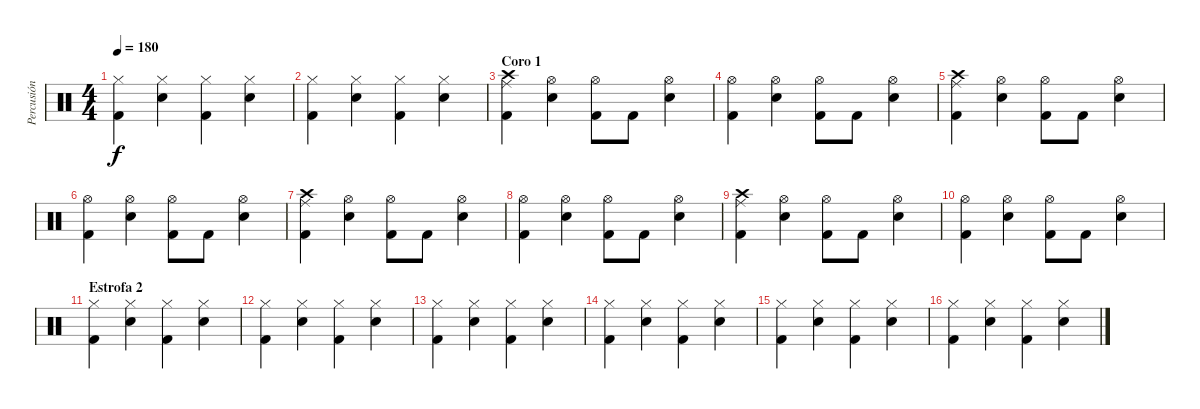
\track ("Percusión" "Percusión") {instrument percussion}
\staff {score}
\articulation defaults
\ts (4 4)
\tempo 180
\clef neutral
\ks c
("Hi-Hat (closed)" "Kick (hit) 2").4{dy f} ("Hi-Hat (closed)" "Electric Snare (hit)").4 ("Hi-Hat (closed)" "Kick (hit) 2").4 ("Hi-Hat (closed)" "Electric Snare (hit)").4 |
("Hi-Hat (closed)" "Kick (hit) 2").4 ("Hi-Hat (closed)" "Electric Snare (hit)").4 ("Hi-Hat (closed)" "Kick (hit) 2").4 ("Hi-Hat (closed)" "Electric Snare (hit)").4 |
\section ("" "Coro 1")
("Ride (middle)" "Crash high (hit)" "Kick (hit) 2").4 ("Hi-Hat (open)" "Electric Snare (hit)").4 ("Hi-Hat (open)" "Kick (hit) 2").8 "Kick (hit) 2".8 ("Hi-Hat (open)" "Electric Snare (hit)").4 |
("Hi-Hat (open)" "Kick (hit) 2").4 ("Hi-Hat (open)" "Electric Snare (hit)").4 ("Hi-Hat (open)" "Kick (hit) 2").8 "Kick (hit) 2".8 ("Hi-Hat (open)" "Electric Snare (hit)").4 |
("Ride (middle)" "Crash high (hit)" "Kick (hit) 2").4 ("Hi-Hat (open)" "Electric Snare (hit)").4 ("Hi-Hat (open)" "Kick (hit) 2").8 "Kick (hit) 2".8 ("Hi-Hat (open)" "Electric Snare (hit)").4 |
("Hi-Hat (open)" "Kick (hit) 2").4 ("Hi-Hat (open)" "Electric Snare (hit)").4 ("Hi-Hat (open)" "Kick (hit) 2").8 "Kick (hit) 2".8 ("Hi-Hat (open)" "Electric Snare (hit)").4 |
("Ride (middle)" "Crash high (hit)" "Kick (hit) 2").4 ("Hi-Hat (open)" "Electric Snare (hit)").4 ("Hi-Hat (open)" "Kick (hit) 2").8 "Kick (hit) 2".8 ("Hi-Hat (open)" "Electric Snare (hit)").4 |
("Hi-Hat (open)" "Kick (hit) 2").4 ("Hi-Hat (open)" "Electric Snare (hit)").4 ("Hi-Hat (open)" "Kick (hit) 2").8 "Kick (hit) 2".8 ("Hi-Hat (open)" "Electric Snare (hit)").4 |
("Ride (middle)" "Crash high (hit)" "Kick (hit) 2").4 ("Hi-Hat (open)" "Electric Snare (hit)").4 ("Hi-Hat (open)" "Kick (hit) 2").8 "Kick (hit) 2".8 ("Hi-Hat (open)" "Electric Snare (hit)").4 |
("Hi-Hat (open)" "Kick (hit) 2").4 ("Hi-Hat (open)" "Electric Snare (hit)").4 ("Hi-Hat (open)" "Kick (hit) 2").8 "Kick (hit) 2".8 ("Hi-Hat (open)" "Electric Snare (hit)").4 |
\section ("" "Estrofa 2")
("Hi-Hat (closed)" "Kick (hit) 2").4 ("Hi-Hat (closed)" "Electric Snare (hit)").4 ("Hi-Hat (closed)" "Kick (hit) 2").4 ("Hi-Hat (closed)" "Electric Snare (hit)").4 |
("Hi-Hat (closed)" "Kick (hit) 2").4 ("Hi-Hat (closed)" "Electric Snare (hit)").4 ("Hi-Hat (closed)" "Kick (hit) 2").4 ("Hi-Hat (closed)" "Electric Snare (hit)").4 |
("Hi-Hat (closed)" "Kick (hit) 2").4 ("Hi-Hat (closed)" "Electric Snare (hit)").4 ("Hi-Hat (closed)" "Kick (hit) 2").4 ("Hi-Hat (closed)" "Electric Snare (hit)").4 |
("Hi-Hat (closed)" "Kick (hit) 2").4 ("Hi-Hat (closed)" "Electric Snare (hit)").4 ("Hi-Hat (closed)" "Kick (hit) 2").4 ("Hi-Hat (closed)" "Electric Snare (hit)").4 |
("Hi-Hat (closed)" "Kick (hit) 2").4 ("Hi-Hat (closed)" "Electric Snare (hit)").4 ("Hi-Hat (closed)" "Kick (hit) 2").4 ("Hi-Hat (closed)" "Electric Snare (hit)").4 |
("Hi-Hat (closed)" "Kick (hit) 2").4 ("Hi-Hat (closed)" "Electric Snare (hit)").4 ("Hi-Hat (closed)" "Kick (hit) 2").4 ("Hi-Hat (closed)" "Electric Snare (hit)").4
